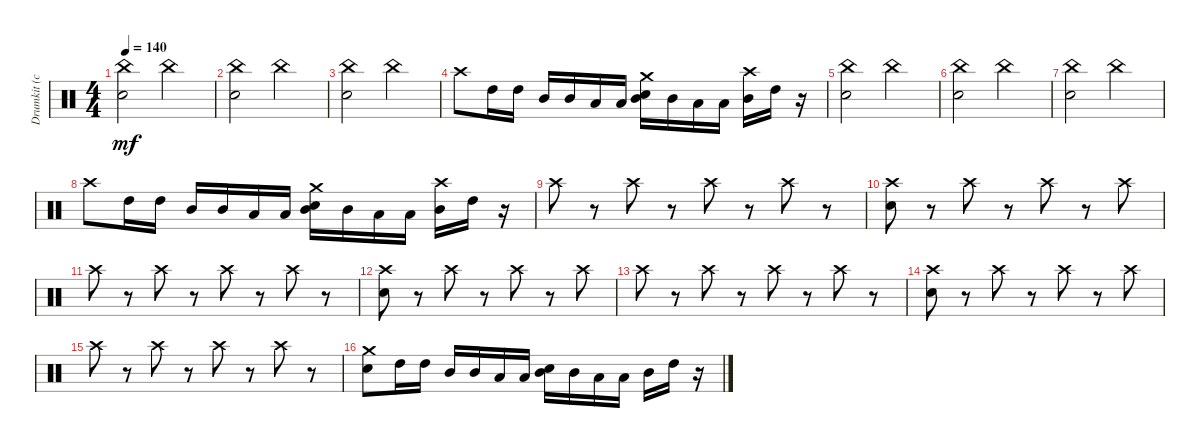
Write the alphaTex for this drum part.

\track ("Drumkit (cymbals)" "Drumkit (c") {instrument percussion}
\staff {score}
\articulation defaults
\ts (4 4)
\tempo 140
\clef neutral
\ks c
("China (hit)" "Snare (hit) 2").2{dy mf} "China (hit)".2 |
("China (hit)" "Snare (hit) 2").2 "China (hit)".2 |
("China (hit)" "Snare (hit) 2").2 "China (hit)".2 |
"Crash high (hit)".8 "High Tom (hit)".16 "High Tom (hit)".16 "Mid Tom (hit)".16 "Mid Tom (hit)".16 "Low Tom (hit)".16 "Low Tom (hit)".16 ("Mid Tom (hit)" "Snare (hit) 2" "Crash medium (hit)").16 "Mid Tom (hit)".16 "Low Tom (hit)".16 "Low Tom (hit)".16 ("Mid Tom (hit)" "Crash high (hit)").16 "High Tom (hit)".16 r.16 |
("China (hit)" "Snare (hit) 2").2 "China (hit)".2 |
("China (hit)" "Snare (hit) 2").2 "China (hit)".2 |
("China (hit)" "Snare (hit) 2").2 "China (hit)".2 |
"Crash high (hit)".8 "High Tom (hit)".16 "High Tom (hit)".16 "Mid Tom (hit)".16 "Mid Tom (hit)".16 "Low Tom (hit)".16 "Low Tom (hit)".16 ("Mid Tom (hit)" "Snare (hit) 2" "Crash medium (hit)").16 "Mid Tom (hit)".16 "Low Tom (hit)".16 "Low Tom (hit)".16 ("Mid Tom (hit)" "Crash high (hit)").16 "High Tom (hit)".16 r.16 |
"Crash high (hit)".8 r.8 "Crash high (hit)".8 r.8 "Crash high (hit)".8 r.8 "Crash high (hit)".8 r.8 |
("Crash high (hit)" "Snare (hit) 2").8 r.8 "Crash high (hit)".8 r.8 "Crash high (hit)".8 r.8 "Crash high (hit)".8 |
"Crash high (hit)".8 r.8 "Crash high (hit)".8 r.8 "Crash high (hit)".8 r.8 "Crash high (hit)".8 r.8 |
("Crash high (hit)" "Snare (hit) 2").8 r.8 "Crash high (hit)".8 r.8 "Crash high (hit)".8 r.8 "Crash high (hit)".8 |
"Crash high (hit)".8 r.8 "Crash high (hit)".8 r.8 "Crash high (hit)".8 r.8 "Crash high (hit)".8 r.8 |
("Crash high (hit)" "Snare (hit) 2").8 r.8 "Crash high (hit)".8 r.8 "Crash high (hit)".8 r.8 "Crash high (hit)".8 |
"Crash high (hit)".8 r.8 "Crash high (hit)".8 r.8 "Crash high (hit)".8 r.8 "Crash high (hit)".8 r.8 |
("Snare (hit) 2" "Crash medium (hit)").8 "High Tom (hit)".16 "High Tom (hit)".16 "Mid Tom (hit)".16 "Mid Tom (hit)".16 "Low Tom (hit)".16 "Low Tom (hit)".16 ("Mid Tom (hit)" "Snare (hit) 2").16 "Mid Tom (hit)".16 "Low Tom (hit)".16 "Low Tom (hit)".16 "Mid Tom (hit)".16 "High Tom (hit)".16 r.16
